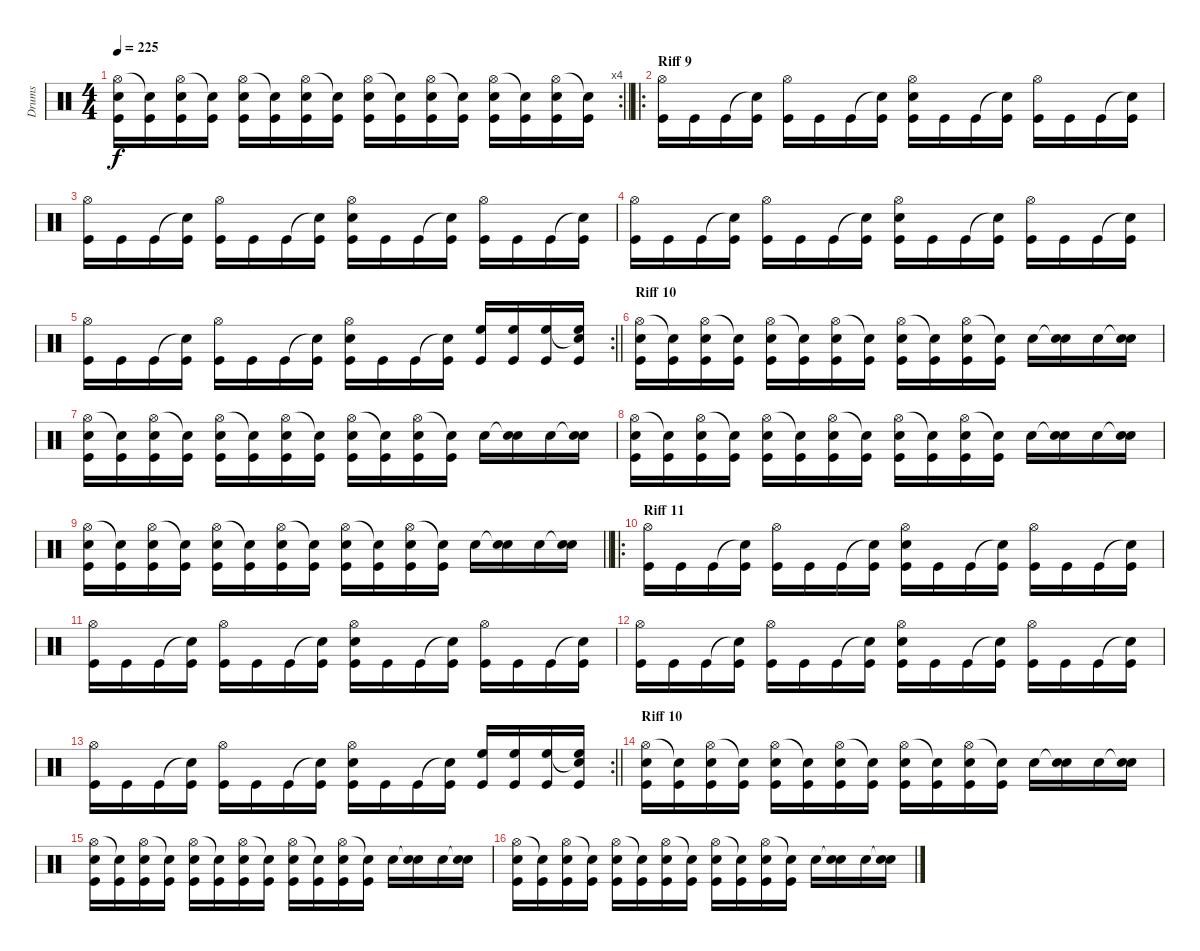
\track ("Drums" "Drums") {instrument percussion}
\staff {score}
\articulation defaults
\rc 4
\ts (4 4)
\tempo 225
\clef neutral
\barLineRight lightlight
\ks c
("Hi-Hat (open)" "Electric Snare (hit)" "Kick (hit)").16{dy f} ("Snare (hit)"{t} "Kick (hit)").16 ("Hi-Hat (open)" "Electric Snare (hit)" "Kick (hit)").16 ("Snare (hit)"{t} "Kick (hit)").16 ("Hi-Hat (open)" "Electric Snare (hit)" "Kick (hit)").16 ("Snare (hit)"{t} "Kick (hit)").16 ("Hi-Hat (open)" "Electric Snare (hit)" "Kick (hit)").16 ("Snare (hit)"{t} "Kick (hit)").16 ("Hi-Hat (open)" "Electric Snare (hit)" "Kick (hit)").16 ("Snare (hit)"{t} "Kick (hit)").16 ("Hi-Hat (open)" "Electric Snare (hit)" "Kick (hit)").16 ("Snare (hit)"{t} "Kick (hit)").16 ("Hi-Hat (open)" "Electric Snare (hit)" "Kick (hit)").16 ("Snare (hit)"{t} "Kick (hit)").16 ("Hi-Hat (open)" "Electric Snare (hit)" "Kick (hit)").16 ("Snare (hit)"{t} "Kick (hit)").16 |
\ro
\section ("" "Riff 9")
("Hi-Hat (open)" "Kick (hit)").16 "Kick (hit)".16 "Kick (hit)".16 ("Snare (hit)"{t} "Kick (hit)").16 ("Hi-Hat (open)" "Kick (hit)").16 "Kick (hit)".16 "Kick (hit)".16 ("Snare (hit)"{t} "Kick (hit)").16 ("Hi-Hat (open)" "Electric Snare (hit)" "Kick (hit)").16 "Kick (hit)".16 "Kick (hit)".16 ("Snare (hit)"{t} "Kick (hit)").16 ("Hi-Hat (open)" "Kick (hit)").16 "Kick (hit)".16 "Kick (hit)".16 ("Snare (hit)"{t} "Kick (hit)").16 |
("Hi-Hat (open)" "Kick (hit)").16 "Kick (hit)".16 "Kick (hit)".16 ("Snare (hit)"{t} "Kick (hit)").16 ("Hi-Hat (open)" "Kick (hit)").16 "Kick (hit)".16 "Kick (hit)".16 ("Snare (hit)"{t} "Kick (hit)").16 ("Hi-Hat (open)" "Electric Snare (hit)" "Kick (hit)").16 "Kick (hit)".16 "Kick (hit)".16 ("Snare (hit)"{t} "Kick (hit)").16 ("Hi-Hat (open)" "Kick (hit)").16 "Kick (hit)".16 "Kick (hit)".16 ("Snare (hit)"{t} "Kick (hit)").16 |
("Hi-Hat (open)" "Kick (hit)").16 "Kick (hit)".16 "Kick (hit)".16 ("Snare (hit)"{t} "Kick (hit)").16 ("Hi-Hat (open)" "Kick (hit)").16 "Kick (hit)".16 "Kick (hit)".16 ("Snare (hit)"{t} "Kick (hit)").16 ("Hi-Hat (open)" "Electric Snare (hit)" "Kick (hit)").16 "Kick (hit)".16 "Kick (hit)".16 ("Snare (hit)"{t} "Kick (hit)").16 ("Hi-Hat (open)" "Kick (hit)").16 "Kick (hit)".16 "Kick (hit)".16 ("Snare (hit)"{t} "Kick (hit)").16 |
\rc 2
\barLineRight lightlight
("Hi-Hat (open)" "Kick (hit)").16 "Kick (hit)".16 "Kick (hit)".16 ("Snare (hit)"{t} "Kick (hit)").16 ("Hi-Hat (open)" "Kick (hit)").16 "Kick (hit)".16 "Kick (hit)".16 ("Snare (hit)"{t} "Kick (hit)").16 ("Hi-Hat (open)" "Electric Snare (hit)" "Kick (hit)").16 "Kick (hit)".16 "Kick (hit)".16 ("Snare (hit)"{t} "Kick (hit)").16 ("High Floor Tom (hit)" "Kick (hit)").16 ("High Floor Tom (hit)" "Kick (hit)").16 ("High Floor Tom (hit)" "Kick (hit)").16 ("Snare (hit)"{t} "High Floor Tom (hit)" "Kick (hit)").16 |
\section ("" "Riff 10")
("Hi-Hat (open)" "Electric Snare (hit)" "Kick (hit)").16 ("Snare (hit)"{t} "Kick (hit)").16 ("Hi-Hat (open)" "Electric Snare (hit)" "Kick (hit)").16 ("Snare (hit)"{t} "Kick (hit)").16 ("Hi-Hat (open)" "Electric Snare (hit)" "Kick (hit)").16 ("Snare (hit)"{t} "Kick (hit)").16 ("Hi-Hat (open)" "Electric Snare (hit)" "Kick (hit)").16 ("Snare (hit)"{t} "Kick (hit)").16 ("Hi-Hat (open)" "Electric Snare (hit)" "Kick (hit)").16 ("Snare (hit)"{t} "Kick (hit)").16 ("Hi-Hat (open)" "Electric Snare (hit)" "Kick (hit)").16 ("Snare (hit)"{t} "Kick (hit)").16 "Electric Snare (hit)".16 ("Snare (hit)"{t} "Electric Snare (hit)").16 "Electric Snare (hit)".16 ("Snare (hit)"{t} "Electric Snare (hit)").16 |
("Hi-Hat (open)" "Electric Snare (hit)" "Kick (hit)").16 ("Snare (hit)"{t} "Kick (hit)").16 ("Hi-Hat (open)" "Electric Snare (hit)" "Kick (hit)").16 ("Snare (hit)"{t} "Kick (hit)").16 ("Hi-Hat (open)" "Electric Snare (hit)" "Kick (hit)").16 ("Snare (hit)"{t} "Kick (hit)").16 ("Hi-Hat (open)" "Electric Snare (hit)" "Kick (hit)").16 ("Snare (hit)"{t} "Kick (hit)").16 ("Hi-Hat (open)" "Electric Snare (hit)" "Kick (hit)").16 ("Snare (hit)"{t} "Kick (hit)").16 ("Hi-Hat (open)" "Electric Snare (hit)" "Kick (hit)").16 ("Snare (hit)"{t} "Kick (hit)").16 "Electric Snare (hit)".16 ("Snare (hit)"{t} "Electric Snare (hit)").16 "Electric Snare (hit)".16 ("Snare (hit)"{t} "Electric Snare (hit)").16 |
("Hi-Hat (open)" "Electric Snare (hit)" "Kick (hit)").16 ("Snare (hit)"{t} "Kick (hit)").16 ("Hi-Hat (open)" "Electric Snare (hit)" "Kick (hit)").16 ("Snare (hit)"{t} "Kick (hit)").16 ("Hi-Hat (open)" "Electric Snare (hit)" "Kick (hit)").16 ("Snare (hit)"{t} "Kick (hit)").16 ("Hi-Hat (open)" "Electric Snare (hit)" "Kick (hit)").16 ("Snare (hit)"{t} "Kick (hit)").16 ("Hi-Hat (open)" "Electric Snare (hit)" "Kick (hit)").16 ("Snare (hit)"{t} "Kick (hit)").16 ("Hi-Hat (open)" "Electric Snare (hit)" "Kick (hit)").16 ("Snare (hit)"{t} "Kick (hit)").16 "Electric Snare (hit)".16 ("Snare (hit)"{t} "Electric Snare (hit)").16 "Electric Snare (hit)".16 ("Snare (hit)"{t} "Electric Snare (hit)").16 |
\barLineRight lightlight
("Hi-Hat (open)" "Electric Snare (hit)" "Kick (hit)").16 ("Snare (hit)"{t} "Kick (hit)").16 ("Hi-Hat (open)" "Electric Snare (hit)" "Kick (hit)").16 ("Snare (hit)"{t} "Kick (hit)").16 ("Hi-Hat (open)" "Electric Snare (hit)" "Kick (hit)").16 ("Snare (hit)"{t} "Kick (hit)").16 ("Hi-Hat (open)" "Electric Snare (hit)" "Kick (hit)").16 ("Snare (hit)"{t} "Kick (hit)").16 ("Hi-Hat (open)" "Electric Snare (hit)" "Kick (hit)").16 ("Snare (hit)"{t} "Kick (hit)").16 ("Hi-Hat (open)" "Electric Snare (hit)" "Kick (hit)").16 ("Snare (hit)"{t} "Kick (hit)").16 "Electric Snare (hit)".16 ("Snare (hit)"{t} "Electric Snare (hit)").16 "Electric Snare (hit)".16 ("Snare (hit)"{t} "Electric Snare (hit)").16 |
\ro
\section ("" "Riff 11")
("Hi-Hat (open)" "Kick (hit)").16 "Kick (hit)".16 "Kick (hit)".16 ("Snare (hit)"{t} "Kick (hit)").16 ("Hi-Hat (open)" "Kick (hit)").16 "Kick (hit)".16 "Kick (hit)".16 ("Snare (hit)"{t} "Kick (hit)").16 ("Hi-Hat (open)" "Electric Snare (hit)" "Kick (hit)").16 "Kick (hit)".16 "Kick (hit)".16 ("Snare (hit)"{t} "Kick (hit)").16 ("Hi-Hat (open)" "Kick (hit)").16 "Kick (hit)".16 "Kick (hit)".16 ("Snare (hit)"{t} "Kick (hit)").16 |
("Hi-Hat (open)" "Kick (hit)").16 "Kick (hit)".16 "Kick (hit)".16 ("Snare (hit)"{t} "Kick (hit)").16 ("Hi-Hat (open)" "Kick (hit)").16 "Kick (hit)".16 "Kick (hit)".16 ("Snare (hit)"{t} "Kick (hit)").16 ("Hi-Hat (open)" "Electric Snare (hit)" "Kick (hit)").16 "Kick (hit)".16 "Kick (hit)".16 ("Snare (hit)"{t} "Kick (hit)").16 ("Hi-Hat (open)" "Kick (hit)").16 "Kick (hit)".16 "Kick (hit)".16 ("Snare (hit)"{t} "Kick (hit)").16 |
("Hi-Hat (open)" "Kick (hit)").16 "Kick (hit)".16 "Kick (hit)".16 ("Snare (hit)"{t} "Kick (hit)").16 ("Hi-Hat (open)" "Kick (hit)").16 "Kick (hit)".16 "Kick (hit)".16 ("Snare (hit)"{t} "Kick (hit)").16 ("Hi-Hat (open)" "Electric Snare (hit)" "Kick (hit)").16 "Kick (hit)".16 "Kick (hit)".16 ("Snare (hit)"{t} "Kick (hit)").16 ("Hi-Hat (open)" "Kick (hit)").16 "Kick (hit)".16 "Kick (hit)".16 ("Snare (hit)"{t} "Kick (hit)").16 |
\rc 2
\barLineRight lightlight
("Hi-Hat (open)" "Kick (hit)").16 "Kick (hit)".16 "Kick (hit)".16 ("Snare (hit)"{t} "Kick (hit)").16 ("Hi-Hat (open)" "Kick (hit)").16 "Kick (hit)".16 "Kick (hit)".16 ("Snare (hit)"{t} "Kick (hit)").16 ("Hi-Hat (open)" "Electric Snare (hit)" "Kick (hit)").16 "Kick (hit)".16 "Kick (hit)".16 ("Snare (hit)"{t} "Kick (hit)").16 ("High Floor Tom (hit)" "Kick (hit)").16 ("High Floor Tom (hit)" "Kick (hit)").16 ("High Floor Tom (hit)" "Kick (hit)").16 ("Snare (hit)"{t} "High Floor Tom (hit)" "Kick (hit)").16 |
\section ("" "Riff 10")
("Hi-Hat (open)" "Electric Snare (hit)" "Kick (hit)").16 ("Snare (hit)"{t} "Kick (hit)").16 ("Hi-Hat (open)" "Electric Snare (hit)" "Kick (hit)").16 ("Snare (hit)"{t} "Kick (hit)").16 ("Hi-Hat (open)" "Electric Snare (hit)" "Kick (hit)").16 ("Snare (hit)"{t} "Kick (hit)").16 ("Hi-Hat (open)" "Electric Snare (hit)" "Kick (hit)").16 ("Snare (hit)"{t} "Kick (hit)").16 ("Hi-Hat (open)" "Electric Snare (hit)" "Kick (hit)").16 ("Snare (hit)"{t} "Kick (hit)").16 ("Hi-Hat (open)" "Electric Snare (hit)" "Kick (hit)").16 ("Snare (hit)"{t} "Kick (hit)").16 "Electric Snare (hit)".16 ("Snare (hit)"{t} "Electric Snare (hit)").16 "Electric Snare (hit)".16 ("Snare (hit)"{t} "Electric Snare (hit)").16 |
("Hi-Hat (open)" "Electric Snare (hit)" "Kick (hit)").16 ("Snare (hit)"{t} "Kick (hit)").16 ("Hi-Hat (open)" "Electric Snare (hit)" "Kick (hit)").16 ("Snare (hit)"{t} "Kick (hit)").16 ("Hi-Hat (open)" "Electric Snare (hit)" "Kick (hit)").16 ("Snare (hit)"{t} "Kick (hit)").16 ("Hi-Hat (open)" "Electric Snare (hit)" "Kick (hit)").16 ("Snare (hit)"{t} "Kick (hit)").16 ("Hi-Hat (open)" "Electric Snare (hit)" "Kick (hit)").16 ("Snare (hit)"{t} "Kick (hit)").16 ("Hi-Hat (open)" "Electric Snare (hit)" "Kick (hit)").16 ("Snare (hit)"{t} "Kick (hit)").16 "Electric Snare (hit)".16 ("Snare (hit)"{t} "Electric Snare (hit)").16 "Electric Snare (hit)".16 ("Snare (hit)"{t} "Electric Snare (hit)").16 |
("Hi-Hat (open)" "Electric Snare (hit)" "Kick (hit)").16 ("Snare (hit)"{t} "Kick (hit)").16 ("Hi-Hat (open)" "Electric Snare (hit)" "Kick (hit)").16 ("Snare (hit)"{t} "Kick (hit)").16 ("Hi-Hat (open)" "Electric Snare (hit)" "Kick (hit)").16 ("Snare (hit)"{t} "Kick (hit)").16 ("Hi-Hat (open)" "Electric Snare (hit)" "Kick (hit)").16 ("Snare (hit)"{t} "Kick (hit)").16 ("Hi-Hat (open)" "Electric Snare (hit)" "Kick (hit)").16 ("Snare (hit)"{t} "Kick (hit)").16 ("Hi-Hat (open)" "Electric Snare (hit)" "Kick (hit)").16 ("Snare (hit)"{t} "Kick (hit)").16 "Electric Snare (hit)".16 ("Snare (hit)"{t} "Electric Snare (hit)").16 "Electric Snare (hit)".16 ("Snare (hit)"{t} "Electric Snare (hit)").16
